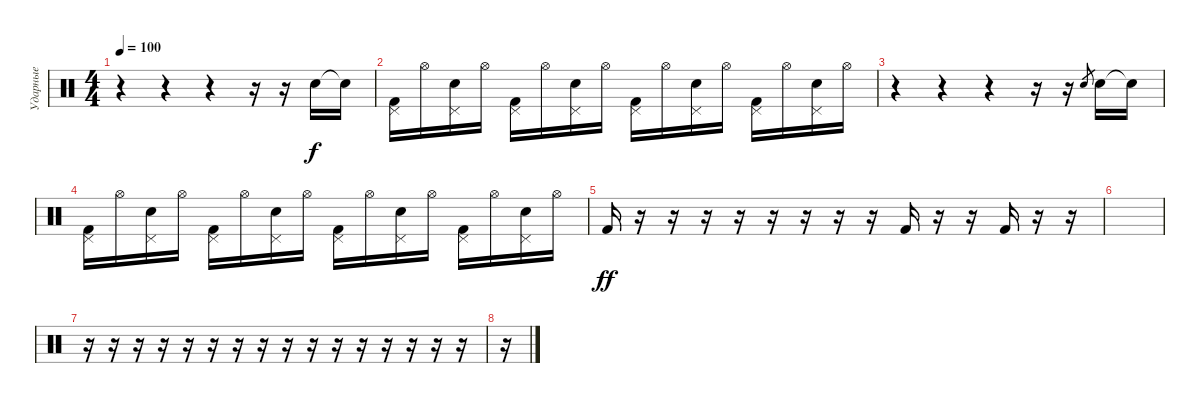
\track ("Ударные" "Ударные") {instrument percussion}
\staff {score}
\articulation defaults
\ts (4 4)
\tempo 100
\clef neutral
\ks c
r.4{dy f} r.4 r.4 r.16 r.16 "Electric Snare (hit)".16 "Snare (hit)"{t}.16 |
("Pedal Hi-Hat (hit)" "Kick (hit) 2").16 "Hi-Hat (open)".16 ("Pedal Hi-Hat (hit)" "Electric Snare (hit)").16 "Hi-Hat (open)".16 ("Pedal Hi-Hat (hit)" "Kick (hit) 2").16 "Hi-Hat (open)".16 ("Pedal Hi-Hat (hit)" "Electric Snare (hit)").16 "Hi-Hat (open)".16 ("Pedal Hi-Hat (hit)" "Kick (hit) 2").16 "Hi-Hat (open)".16 ("Pedal Hi-Hat (hit)" "Electric Snare (hit)").16 "Hi-Hat (open)".16 ("Pedal Hi-Hat (hit)" "Kick (hit) 2").16 "Hi-Hat (open)".16 ("Pedal Hi-Hat (hit)" "Electric Snare (hit)").16 "Hi-Hat (open)".16 |
r.4 r.4 r.4 r.16 r.16 "Electric Snare (hit)".8{gr} "Electric Snare (hit)".16 "Snare (hit)"{t}.16 |
("Pedal Hi-Hat (hit)" "Kick (hit) 2").16 "Hi-Hat (open)".16 ("Pedal Hi-Hat (hit)" "Electric Snare (hit)").16 "Hi-Hat (open)".16 ("Pedal Hi-Hat (hit)" "Kick (hit) 2").16 "Hi-Hat (open)".16 ("Pedal Hi-Hat (hit)" "Electric Snare (hit)").16 "Hi-Hat (open)".16 ("Pedal Hi-Hat (hit)" "Kick (hit) 2").16 "Hi-Hat (open)".16 ("Pedal Hi-Hat (hit)" "Electric Snare (hit)").16 "Hi-Hat (open)".16 ("Pedal Hi-Hat (hit)" "Kick (hit) 2").16 "Hi-Hat (open)".16 ("Pedal Hi-Hat (hit)" "Electric Snare (hit)").16 "Hi-Hat (open)".16 |
"Kick (hit) 2".16{dy ff} r.16 r.16 r.16 r.16 r.16 r.16 r.16 r.16 "Kick (hit) 2".16 r.16 r.16 "Kick (hit) 2".16 r.16 r.16 |
|
r.16 r.16 r.16 r.16 r.16 r.16 r.16 r.16 r.16 r.16 r.16 r.16 r.16 r.16 r.16 r.16 |
r.16
